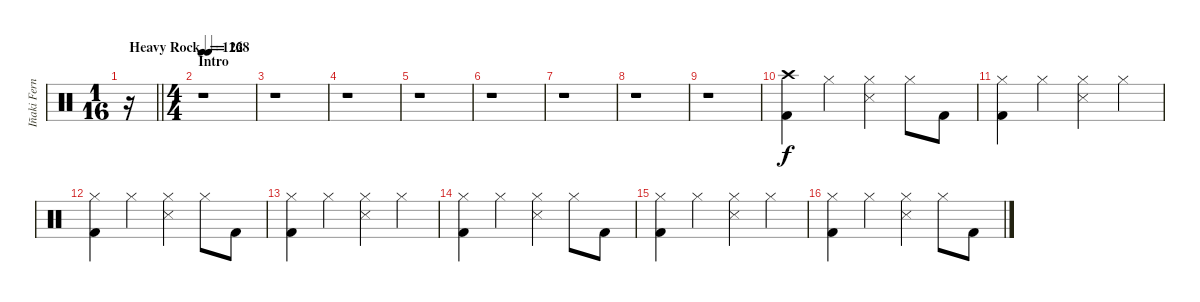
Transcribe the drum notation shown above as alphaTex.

\track ("Iñaki Fernández" "Iñaki Fern") {instrument percussion}
\staff {score}
\articulation defaults
\ts (1 16)
\tempo (168 "Heavy Rock")
\clef neutral
\barLineRight lightlight
\ks c
r.16{dy f} |
\ts (4 4)
\section ("" "Intro")
\tempo 122
r.1 |
r.1 |
r.1 |
r.1 |
r.1 |
r.1 |
r.1 |
r.1 |
("Crash high (hit)" "Kick (hit) 2").4 "Hi-Hat (closed)".4 ("Hi-Hat (closed)" "Snare (side stick) 3").4 "Hi-Hat (closed)".8 "Kick (hit) 2".8 |
("Hi-Hat (closed)" "Kick (hit) 2").4 "Hi-Hat (closed)".4 ("Hi-Hat (closed)" "Snare (side stick) 3").4 "Hi-Hat (closed)".4 |
("Hi-Hat (closed)" "Kick (hit) 2").4 "Hi-Hat (closed)".4 ("Hi-Hat (closed)" "Snare (side stick) 3").4 "Hi-Hat (closed)".8 "Kick (hit) 2".8 |
("Hi-Hat (closed)" "Kick (hit) 2").4 "Hi-Hat (closed)".4 ("Hi-Hat (closed)" "Snare (side stick) 3").4 "Hi-Hat (closed)".4 |
("Hi-Hat (closed)" "Kick (hit) 2").4 "Hi-Hat (closed)".4 ("Hi-Hat (closed)" "Snare (side stick) 3").4 "Hi-Hat (closed)".8 "Kick (hit) 2".8 |
("Hi-Hat (closed)" "Kick (hit) 2").4 "Hi-Hat (closed)".4 ("Hi-Hat (closed)" "Snare (side stick) 3").4 "Hi-Hat (closed)".4 |
("Hi-Hat (closed)" "Kick (hit) 2").4 "Hi-Hat (closed)".4 ("Hi-Hat (closed)" "Snare (side stick) 3").4 "Hi-Hat (closed)".8 "Kick (hit) 2".8
